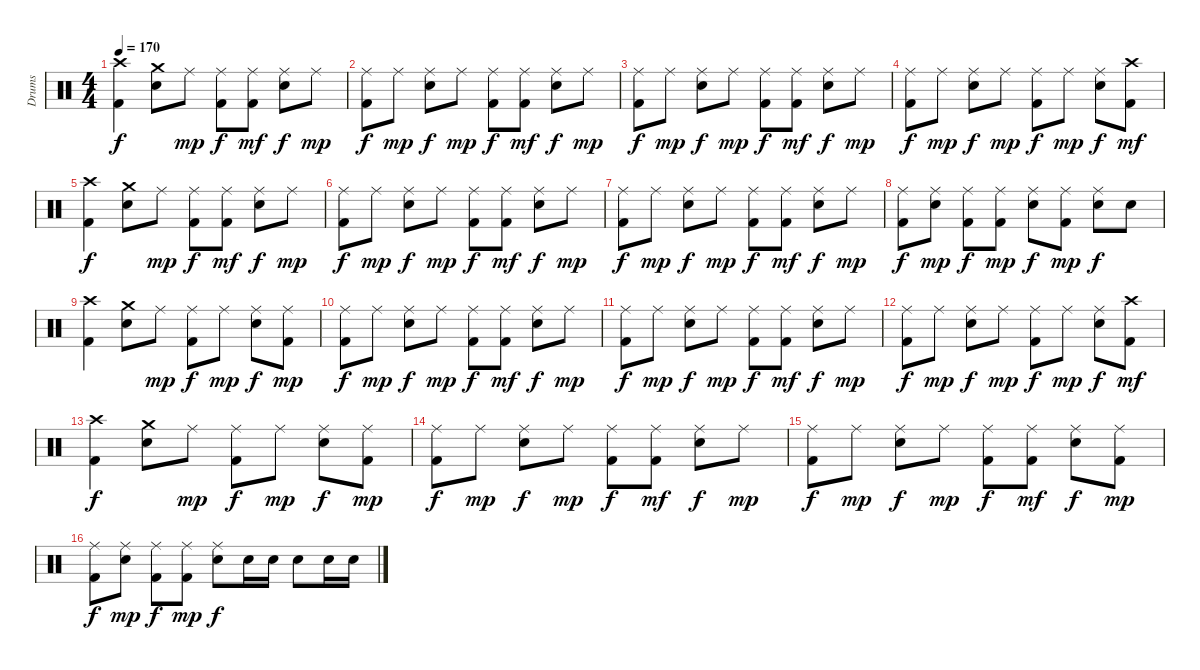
\track ("Drums" "Drums") {instrument percussion}
\staff {score}
\articulation defaults
\ts (4 4)
\tempo 170
\clef neutral
\ks c
("Crash high (hit)" "Kick (hit) 2").4{dy f} ("Crash medium (hit)" "Snare (hit) 2").8 "Ride (middle)".8{dy mp} ("Ride (middle)" "Kick (hit) 2").8{dy f} ("Ride (middle)" "Kick (hit) 2").8{dy mf} ("Ride (middle)" "Snare (hit) 2").8{dy f} "Ride (middle)".8{dy mp} |
("Ride (middle)" "Kick (hit) 2").8{dy f} "Ride (middle)".8{dy mp} ("Ride (middle)" "Snare (hit) 2").8{dy f} "Ride (middle)".8{dy mp} ("Ride (middle)" "Kick (hit) 2").8{dy f} ("Ride (middle)" "Kick (hit) 2").8{dy mf} ("Ride (middle)" "Snare (hit) 2").8{dy f} "Ride (middle)".8{dy mp} |
("Ride (middle)" "Kick (hit) 2").8{dy f} "Ride (middle)".8{dy mp} ("Ride (middle)" "Snare (hit) 2").8{dy f} "Ride (middle)".8{dy mp} ("Ride (middle)" "Kick (hit) 2").8{dy f} ("Ride (middle)" "Kick (hit) 2").8{dy mf} ("Ride (middle)" "Snare (hit) 2").8{dy f} "Ride (middle)".8{dy mp} |
("Ride (middle)" "Kick (hit) 2").8{dy f} "Ride (middle)".8{dy mp} ("Ride (middle)" "Snare (hit) 2").8{dy f} "Ride (middle)".8{dy mp} ("Ride (middle)" "Kick (hit) 2").8{dy f} "Ride (middle)".8{dy mp} ("Ride (middle)" "Snare (hit) 2").8{dy f} ("Crash high (hit)" "Kick (hit) 2").8{dy mf} |
("Crash high (hit)" "Kick (hit) 2").4{dy f} ("Crash medium (hit)" "Snare (hit) 2").8 "Ride (middle)".8{dy mp} ("Ride (middle)" "Kick (hit) 2").8{dy f} ("Ride (middle)" "Kick (hit) 2").8{dy mf} ("Ride (middle)" "Snare (hit) 2").8{dy f} "Ride (middle)".8{dy mp} |
("Ride (middle)" "Kick (hit) 2").8{dy f} "Ride (middle)".8{dy mp} ("Ride (middle)" "Snare (hit) 2").8{dy f} "Ride (middle)".8{dy mp} ("Ride (middle)" "Kick (hit) 2").8{dy f} ("Ride (middle)" "Kick (hit) 2").8{dy mf} ("Ride (middle)" "Snare (hit) 2").8{dy f} "Ride (middle)".8{dy mp} |
("Ride (middle)" "Kick (hit) 2").8{dy f} "Ride (middle)".8{dy mp} ("Ride (middle)" "Snare (hit) 2").8{dy f} "Ride (middle)".8{dy mp} ("Ride (middle)" "Kick (hit) 2").8{dy f} ("Ride (middle)" "Kick (hit) 2").8{dy mf} ("Ride (middle)" "Snare (hit) 2").8{dy f} "Ride (middle)".8{dy mp} |
("Ride (middle)" "Kick (hit) 2").8{dy f} ("Ride (middle)" "Snare (hit) 2").8{dy mp} ("Ride (middle)" "Kick (hit) 2").8{dy f} ("Ride (middle)" "Kick (hit) 2").8{dy mp} ("Ride (middle)" "Snare (hit) 2").8{dy f} ("Ride (middle)" "Kick (hit) 2").8{dy mp} ("Ride (middle)" "Snare (hit) 2").8{dy f} "Snare (hit) 2".8 |
("Crash high (hit)" "Kick (hit) 2").4 ("Crash medium (hit)" "Snare (hit) 2").8 "Ride (middle)".8{dy mp} ("Ride (middle)" "Kick (hit) 2").8{dy f} "Ride (middle)".8{dy mp} ("Ride (middle)" "Snare (hit) 2").8{dy f} ("Ride (middle)" "Kick (hit) 2").8{dy mp} |
("Ride (middle)" "Kick (hit) 2").8{dy f} "Ride (middle)".8{dy mp} ("Ride (middle)" "Snare (hit) 2").8{dy f} "Ride (middle)".8{dy mp} ("Ride (middle)" "Kick (hit) 2").8{dy f} ("Ride (middle)" "Kick (hit) 2").8{dy mf} ("Ride (middle)" "Snare (hit) 2").8{dy f} "Ride (middle)".8{dy mp} |
("Ride (middle)" "Kick (hit) 2").8{dy f} "Ride (middle)".8{dy mp} ("Ride (middle)" "Snare (hit) 2").8{dy f} "Ride (middle)".8{dy mp} ("Ride (middle)" "Kick (hit) 2").8{dy f} ("Ride (middle)" "Kick (hit) 2").8{dy mf} ("Ride (middle)" "Snare (hit) 2").8{dy f} "Ride (middle)".8{dy mp} |
("Ride (middle)" "Kick (hit) 2").8{dy f} "Ride (middle)".8{dy mp} ("Ride (middle)" "Snare (hit) 2").8{dy f} "Ride (middle)".8{dy mp} ("Ride (middle)" "Kick (hit) 2").8{dy f} "Ride (middle)".8{dy mp} ("Ride (middle)" "Snare (hit) 2").8{dy f} ("Crash high (hit)" "Kick (hit) 2").8{dy mf} |
("Crash high (hit)" "Kick (hit) 2").4{dy f} ("Crash medium (hit)" "Snare (hit) 2").8 "Ride (middle)".8{dy mp} ("Ride (middle)" "Kick (hit) 2").8{dy f} "Ride (middle)".8{dy mp} ("Ride (middle)" "Snare (hit) 2").8{dy f} ("Ride (middle)" "Kick (hit) 2").8{dy mp} |
("Ride (middle)" "Kick (hit) 2").8{dy f} "Ride (middle)".8{dy mp} ("Ride (middle)" "Snare (hit) 2").8{dy f} "Ride (middle)".8{dy mp} ("Ride (middle)" "Kick (hit) 2").8{dy f} ("Ride (middle)" "Kick (hit) 2").8{dy mf} ("Ride (middle)" "Snare (hit) 2").8{dy f} "Ride (middle)".8{dy mp} |
("Ride (middle)" "Kick (hit) 2").8{dy f} "Ride (middle)".8{dy mp} ("Ride (middle)" "Snare (hit) 2").8{dy f} "Ride (middle)".8{dy mp} ("Ride (middle)" "Kick (hit) 2").8{dy f} ("Ride (middle)" "Kick (hit) 2").8{dy mf} ("Ride (middle)" "Snare (hit) 2").8{dy f} ("Ride (middle)" "Kick (hit) 2").8{dy mp} |
("Ride (middle)" "Kick (hit) 2").8{dy f} ("Ride (middle)" "Snare (hit) 2").8{dy mp} ("Ride (middle)" "Kick (hit) 2").8{dy f} ("Ride (middle)" "Kick (hit) 2").8{dy mp} ("Ride (middle)" "Snare (hit) 2").8{dy f} "Snare (hit) 2".16 "Snare (hit) 2".16 "Snare (hit) 2".8 "Snare (hit) 2".16 "Snare (hit) 2".16
